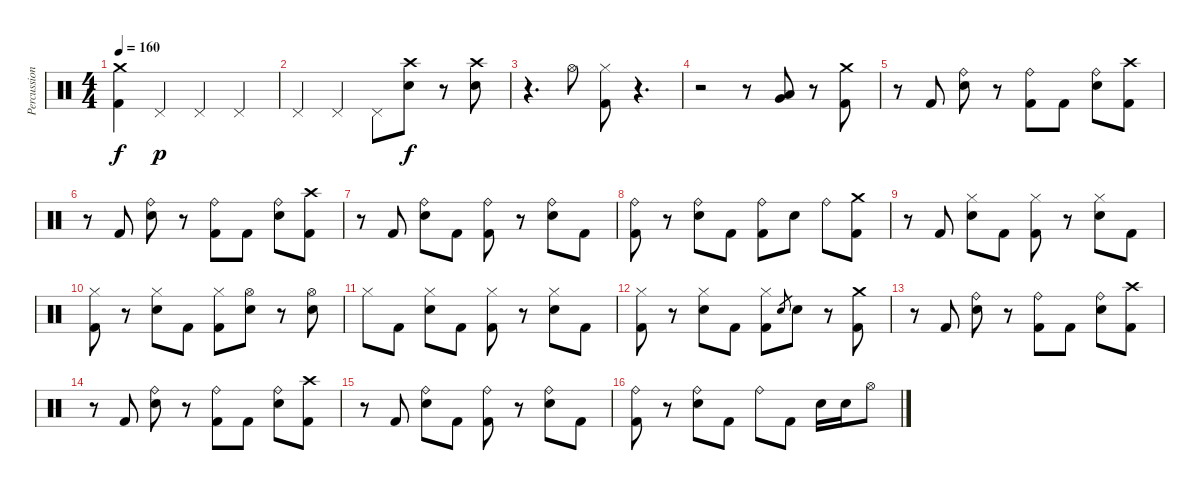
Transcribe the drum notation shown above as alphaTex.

\track ("Percussion" "Percussion") {instrument percussion}
\staff {score}
\articulation defaults
\ts (4 4)
\tempo 160
\clef neutral
\ks c
("Crash medium (hit)" "Kick (hit) 2").4{dy f} "Pedal Hi-Hat (hit)".4{dy p} "Pedal Hi-Hat (hit)".4 "Pedal Hi-Hat (hit)".4 |
"Pedal Hi-Hat (hit)".4 "Pedal Hi-Hat (hit)".4 "Pedal Hi-Hat (hit)".8 ("Crash high (hit)" "Electric Snare (hit)").8{dy f} r.8 ("Crash high (hit)" "Electric Snare (hit)").8 |
r.4{d} "Hi-Hat (open)".8 ("Hi-Hat (closed)" "Kick (hit) 2").8 r.4{d} |
r.2 r.8 ("Low Tom (hit)" "Very Low Tom (hit)").8 r.8 ("Crash medium (hit)" "Kick (hit) 2").8 |
r.8 "Kick (hit) 2".8 ("Ride (bell)" "Electric Snare (hit)").8 r.8 ("Ride (bell)" "Kick (hit) 2").8 "Kick (hit) 2".8 ("Ride (bell)" "Electric Snare (hit)").8 ("Crash high (hit)" "Kick (hit) 2").8 |
r.8 "Kick (hit) 2".8 ("Ride (bell)" "Electric Snare (hit)").8 r.8 ("Ride (bell)" "Kick (hit) 2").8 "Kick (hit) 2".8 ("Ride (bell)" "Electric Snare (hit)").8 ("Crash high (hit)" "Kick (hit) 2").8 |
r.8 "Kick (hit) 2".8 ("Ride (bell)" "Electric Snare (hit)").8 "Kick (hit) 2".8 ("Ride (bell)" "Kick (hit) 2").8 r.8 ("Ride (bell)" "Electric Snare (hit)").8 "Kick (hit) 2".8 |
("Ride (bell)" "Kick (hit) 2").8 r.8 ("Ride (bell)" "Electric Snare (hit)").8 "Kick (hit) 2".8 ("Ride (bell)" "Kick (hit) 2").8 "Electric Snare (hit)".8 "Ride (bell)".8 ("Crash medium (hit)" "Kick (hit) 2").8 |
r.8 "Kick (hit) 2".8 ("Hi-Hat (closed)" "Electric Snare (hit)").8 "Kick (hit) 2".8 ("Hi-Hat (closed)" "Kick (hit) 2").8 r.8 ("Hi-Hat (closed)" "Electric Snare (hit)").8 "Kick (hit) 2".8 |
("Hi-Hat (closed)" "Kick (hit) 2").8 r.8 ("Hi-Hat (closed)" "Electric Snare (hit)").8 "Kick (hit) 2".8 ("Hi-Hat (closed)" "Kick (hit) 2").8 ("Hi-Hat (open)" "Electric Snare (hit)").8 r.8 ("Hi-Hat (open)" "Electric Snare (hit)").8 |
"Hi-Hat (closed)".8 "Kick (hit) 2".8 ("Hi-Hat (closed)" "Electric Snare (hit)").8 "Kick (hit) 2".8 ("Hi-Hat (closed)" "Kick (hit) 2").8 r.8 ("Hi-Hat (closed)" "Electric Snare (hit)").8 "Kick (hit) 2".8 |
("Hi-Hat (closed)" "Kick (hit) 2").8 r.8 ("Hi-Hat (closed)" "Electric Snare (hit)").8 "Kick (hit) 2".8 ("Hi-Hat (closed)" "Kick (hit) 2").8 "Electric Snare (hit)".8{gr} "Electric Snare (hit)".8 r.8 ("Crash medium (hit)" "Kick (hit) 2").8 |
r.8 "Kick (hit) 2".8 ("Ride (bell)" "Electric Snare (hit)").8 r.8 ("Ride (bell)" "Kick (hit) 2").8 "Kick (hit) 2".8 ("Ride (bell)" "Electric Snare (hit)").8 ("Crash high (hit)" "Kick (hit) 2").8 |
r.8 "Kick (hit) 2".8 ("Ride (bell)" "Electric Snare (hit)").8 r.8 ("Ride (bell)" "Kick (hit) 2").8 "Kick (hit) 2".8 ("Ride (bell)" "Electric Snare (hit)").8 ("Crash high (hit)" "Kick (hit) 2").8 |
r.8 "Kick (hit) 2".8 ("Ride (bell)" "Electric Snare (hit)").8 "Kick (hit) 2".8 ("Ride (bell)" "Kick (hit) 2").8 r.8 ("Ride (bell)" "Electric Snare (hit)").8 "Kick (hit) 2".8 |
("Ride (bell)" "Kick (hit) 2").8 r.8 ("Ride (bell)" "Electric Snare (hit)").8 "Kick (hit) 2".8 "Ride (bell)".8 "Kick (hit) 2".8 "Electric Snare (hit)".16 "Electric Snare (hit)".16 "Hi-Hat (open)".8
